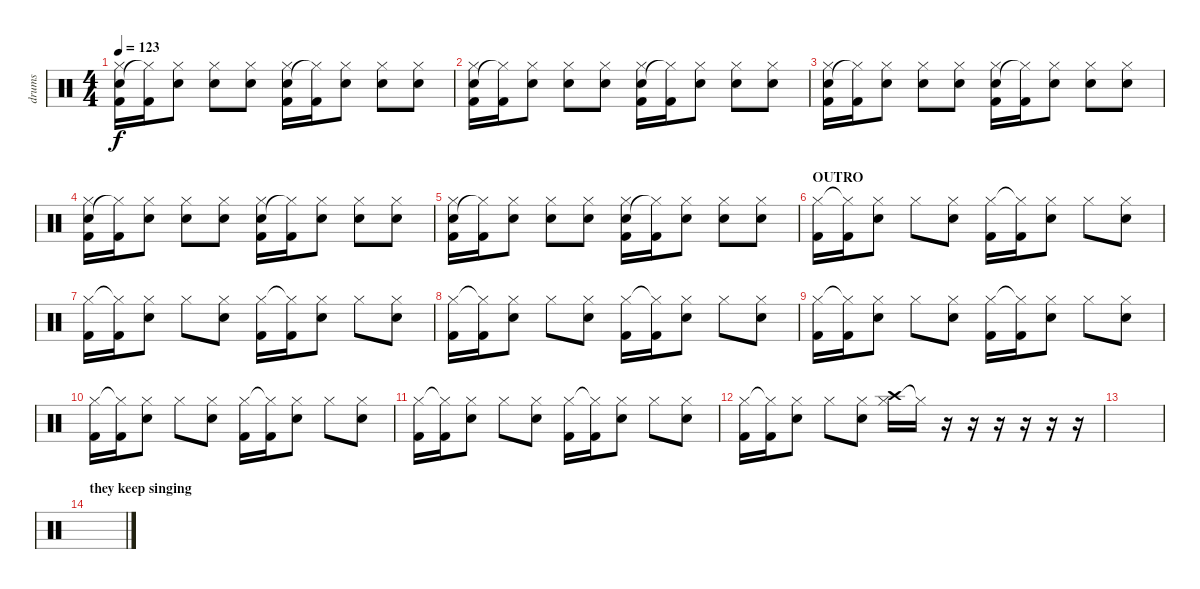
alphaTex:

\track ("drums" "drums") {instrument percussion}
\staff {score}
\articulation defaults
\ts (4 4)
\tempo 123
\clef neutral
\ks c
("Kick (hit) 2" "Electric Snare (hit)" "Hi-Hat (closed)").16{dy f} ("Kick (hit) 2" "Hi-Hat (closed)"{t}).16 ("Electric Snare (hit)" "Hi-Hat (closed)").8 ("Electric Snare (hit)" "Hi-Hat (closed)").8 ("Electric Snare (hit)" "Hi-Hat (closed)").8 ("Kick (hit) 2" "Electric Snare (hit)" "Hi-Hat (closed)").16 ("Kick (hit) 2" "Hi-Hat (closed)"{t}).16 ("Electric Snare (hit)" "Hi-Hat (closed)").8 ("Electric Snare (hit)" "Hi-Hat (closed)").8 ("Electric Snare (hit)" "Hi-Hat (closed)").8 |
("Kick (hit) 2" "Electric Snare (hit)" "Hi-Hat (closed)").16 ("Kick (hit) 2" "Hi-Hat (closed)"{t}).16 ("Electric Snare (hit)" "Hi-Hat (closed)").8 ("Electric Snare (hit)" "Hi-Hat (closed)").8 ("Electric Snare (hit)" "Hi-Hat (closed)").8 ("Kick (hit) 2" "Electric Snare (hit)" "Hi-Hat (closed)").16 ("Kick (hit) 2" "Hi-Hat (closed)"{t}).16 ("Electric Snare (hit)" "Hi-Hat (closed)").8 ("Electric Snare (hit)" "Hi-Hat (closed)").8 ("Electric Snare (hit)" "Hi-Hat (closed)").8 |
("Kick (hit) 2" "Electric Snare (hit)" "Hi-Hat (closed)").16 ("Kick (hit) 2" "Hi-Hat (closed)"{t}).16 ("Electric Snare (hit)" "Hi-Hat (closed)").8 ("Electric Snare (hit)" "Hi-Hat (closed)").8 ("Electric Snare (hit)" "Hi-Hat (closed)").8 ("Kick (hit) 2" "Electric Snare (hit)" "Hi-Hat (closed)").16 ("Kick (hit) 2" "Hi-Hat (closed)"{t}).16 ("Electric Snare (hit)" "Hi-Hat (closed)").8 ("Electric Snare (hit)" "Hi-Hat (closed)").8 ("Electric Snare (hit)" "Hi-Hat (closed)").8 |
("Kick (hit) 2" "Electric Snare (hit)" "Hi-Hat (closed)").16 ("Kick (hit) 2" "Hi-Hat (closed)"{t}).16 ("Electric Snare (hit)" "Hi-Hat (closed)").8 ("Electric Snare (hit)" "Hi-Hat (closed)").8 ("Electric Snare (hit)" "Hi-Hat (closed)").8 ("Kick (hit) 2" "Electric Snare (hit)" "Hi-Hat (closed)").16 ("Kick (hit) 2" "Hi-Hat (closed)"{t}).16 ("Electric Snare (hit)" "Hi-Hat (closed)").8 ("Electric Snare (hit)" "Hi-Hat (closed)").8 ("Electric Snare (hit)" "Hi-Hat (closed)").8 |
("Kick (hit) 2" "Electric Snare (hit)" "Hi-Hat (closed)").16 ("Kick (hit) 2" "Hi-Hat (closed)"{t}).16 ("Electric Snare (hit)" "Hi-Hat (closed)").8 ("Electric Snare (hit)" "Hi-Hat (closed)").8 ("Electric Snare (hit)" "Hi-Hat (closed)").8 ("Kick (hit) 2" "Electric Snare (hit)" "Hi-Hat (closed)").16 ("Kick (hit) 2" "Hi-Hat (closed)"{t}).16 ("Electric Snare (hit)" "Hi-Hat (closed)").8 ("Electric Snare (hit)" "Hi-Hat (closed)").8 ("Electric Snare (hit)" "Hi-Hat (closed)").8 |
\section ("" "OUTRO")
("Kick (hit) 2" "Hi-Hat (closed)").16 ("Kick (hit) 2" "Hi-Hat (closed)"{t}).16 ("Electric Snare (hit)" "Hi-Hat (closed)").8 "Hi-Hat (closed)".8 ("Electric Snare (hit)" "Hi-Hat (closed)").8 ("Kick (hit) 2" "Hi-Hat (closed)").16 ("Kick (hit) 2" "Hi-Hat (closed)"{t}).16 ("Electric Snare (hit)" "Hi-Hat (closed)").8 "Hi-Hat (closed)".8 ("Electric Snare (hit)" "Hi-Hat (closed)").8 |
("Kick (hit) 2" "Hi-Hat (closed)").16 ("Kick (hit) 2" "Hi-Hat (closed)"{t}).16 ("Electric Snare (hit)" "Hi-Hat (closed)").8 "Hi-Hat (closed)".8 ("Electric Snare (hit)" "Hi-Hat (closed)").8 ("Kick (hit) 2" "Hi-Hat (closed)").16 ("Kick (hit) 2" "Hi-Hat (closed)"{t}).16 ("Electric Snare (hit)" "Hi-Hat (closed)").8 "Hi-Hat (closed)".8 ("Electric Snare (hit)" "Hi-Hat (closed)").8 |
("Kick (hit) 2" "Hi-Hat (closed)").16 ("Kick (hit) 2" "Hi-Hat (closed)"{t}).16 ("Electric Snare (hit)" "Hi-Hat (closed)").8 "Hi-Hat (closed)".8 ("Electric Snare (hit)" "Hi-Hat (closed)").8 ("Kick (hit) 2" "Hi-Hat (closed)").16 ("Kick (hit) 2" "Hi-Hat (closed)"{t}).16 ("Electric Snare (hit)" "Hi-Hat (closed)").8 "Hi-Hat (closed)".8 ("Electric Snare (hit)" "Hi-Hat (closed)").8 |
("Kick (hit) 2" "Hi-Hat (closed)").16 ("Kick (hit) 2" "Hi-Hat (closed)"{t}).16 ("Electric Snare (hit)" "Hi-Hat (closed)").8 "Hi-Hat (closed)".8 ("Electric Snare (hit)" "Hi-Hat (closed)").8 ("Kick (hit) 2" "Hi-Hat (closed)").16 ("Kick (hit) 2" "Hi-Hat (closed)"{t}).16 ("Electric Snare (hit)" "Hi-Hat (closed)").8 "Hi-Hat (closed)".8 ("Electric Snare (hit)" "Hi-Hat (closed)").8 |
("Kick (hit) 2" "Hi-Hat (closed)").16 ("Kick (hit) 2" "Hi-Hat (closed)"{t}).16 ("Electric Snare (hit)" "Hi-Hat (closed)").8 "Hi-Hat (closed)".8 ("Electric Snare (hit)" "Hi-Hat (closed)").8 ("Kick (hit) 2" "Hi-Hat (closed)").16 ("Kick (hit) 2" "Hi-Hat (closed)"{t}).16 ("Electric Snare (hit)" "Hi-Hat (closed)").8 "Hi-Hat (closed)".8 ("Electric Snare (hit)" "Hi-Hat (closed)").8 |
("Kick (hit) 2" "Hi-Hat (closed)").16 ("Kick (hit) 2" "Hi-Hat (closed)"{t}).16 ("Electric Snare (hit)" "Hi-Hat (closed)").8 "Hi-Hat (closed)".8 ("Electric Snare (hit)" "Hi-Hat (closed)").8 ("Kick (hit) 2" "Hi-Hat (closed)").16 ("Kick (hit) 2" "Hi-Hat (closed)"{t}).16 ("Electric Snare (hit)" "Hi-Hat (closed)").8 "Hi-Hat (closed)".8 ("Electric Snare (hit)" "Hi-Hat (closed)").8 |
("Kick (hit) 2" "Hi-Hat (closed)").16 ("Kick (hit) 2" "Hi-Hat (closed)"{t}).16 ("Electric Snare (hit)" "Hi-Hat (closed)").8 "Hi-Hat (closed)".8 ("Electric Snare (hit)" "Hi-Hat (closed)").8 ("Crash high (hit)" "Hi-Hat (closed)").16 "Hi-Hat (closed)"{t}.16 r.16 r.16 r.16 r.16 r.16 r.16 |
|
\section ("" "they keep singing")
